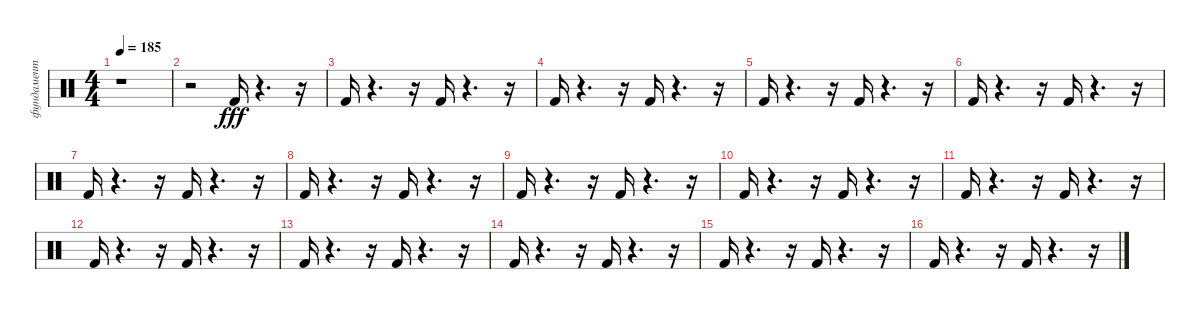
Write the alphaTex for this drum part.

\track ("фундамент" "фундамент") {instrument percussion}
\staff {score}
\articulation defaults
\ts (4 4)
\tempo 185
\clef neutral
\ks c
r.1{dy fff} |
r.2 "Kick (hit) 2".16{balance 4} r.4{d} r.16 |
"Kick (hit) 2".16{balance 9} r.4{d} r.16 "Kick (hit) 2".16{balance 8} r.4{d} r.16 |
"Kick (hit) 2".16{balance 8} r.4{d} r.16 "Kick (hit) 2".16 r.4{d} r.16 |
"Kick (hit) 2".16 r.4{d} r.16 "Kick (hit) 2".16 r.4{d} r.16 |
"Kick (hit) 2".16 r.4{d} r.16 "Kick (hit) 2".16 r.4{d} r.16 |
"Kick (hit) 2".16 r.4{d} r.16 "Kick (hit) 2".16 r.4{d} r.16 |
"Kick (hit) 2".16 r.4{d} r.16 "Kick (hit) 2".16 r.4{d} r.16 |
"Kick (hit) 2".16 r.4{d} r.16 "Kick (hit) 2".16 r.4{d} r.16 |
"Kick (hit) 2".16 r.4{d} r.16 "Kick (hit) 2".16 r.4{d} r.16 |
"Kick (hit) 2".16 r.4{d} r.16 "Kick (hit) 2".16 r.4{d} r.16 |
"Kick (hit) 2".16 r.4{d} r.16 "Kick (hit) 2".16 r.4{d} r.16 |
"Kick (hit) 2".16 r.4{d} r.16 "Kick (hit) 2".16 r.4{d} r.16 |
"Kick (hit) 2".16 r.4{d} r.16 "Kick (hit) 2".16 r.4{d} r.16 |
"Kick (hit) 2".16 r.4{d} r.16 "Kick (hit) 2".16 r.4{d} r.16 |
"Kick (hit) 2".16 r.4{d} r.16 "Kick (hit) 2".16 r.4{d} r.16
